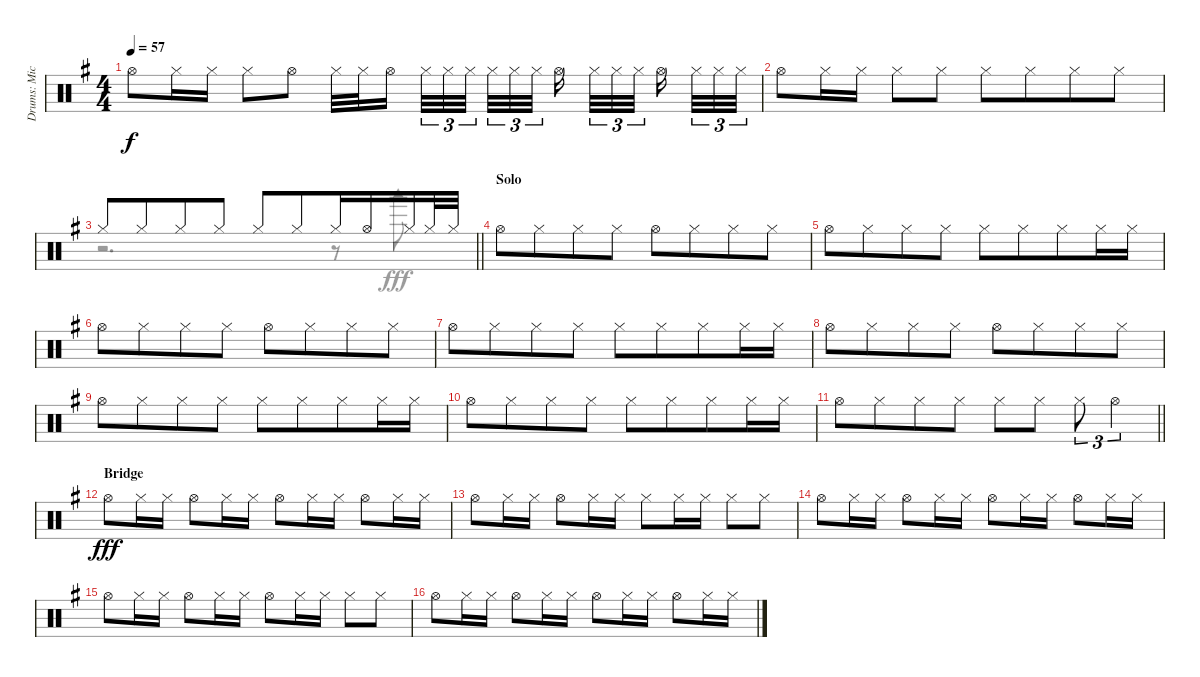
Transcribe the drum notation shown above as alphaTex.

\track ("Drums: Mick" "Drums: Mic") {instrument percussion}
\staff {score}
\articulation defaults
\voice
\ts (4 4)
\tempo 57
\clef neutral
\ks g "Hi-Hat (open)".8{dy f} "Hi-Hat (closed)".16 "Hi-Hat (closed)".16 "Hi-Hat (closed)".8 "Hi-Hat (open)".8 "Hi-Hat (closed)".32 "Hi-Hat (closed)".32 "Hi-Hat (open)".16{beam splitsecondary} "Hi-Hat (closed)".32{tu (3 2)} "Hi-Hat (closed)".32{tu (3 2)} "Hi-Hat (closed)".32{tu (3 2) beam splitsecondary} "Hi-Hat (closed)".32{tu (3 2)} "Hi-Hat (closed)".32{tu (3 2)} "Hi-Hat (closed)".32{tu (3 2)} "Hi-Hat (open)".16{beam splitsecondary} "Hi-Hat (closed)".32{tu (3 2)} "Hi-Hat (closed)".32{tu (3 2)} "Hi-Hat (closed)".32{tu (3 2) beam splitsecondary} "Hi-Hat (open)".16{beam splitsecondary} "Hi-Hat (closed)".32{tu (3 2)} "Hi-Hat (closed)".32{tu (3 2)} "Hi-Hat (closed)".32{tu (3 2)}
|
"Hi-Hat (open)".8 "Hi-Hat (closed)".16 "Hi-Hat (closed)".16 "Hi-Hat (closed)".8 "Hi-Hat (closed)".8 "Hi-Hat (closed)".8 "Hi-Hat (closed)".8{beam merge} "Hi-Hat (closed)".8 "Hi-Hat (closed)".8 |
\barLineRight lightlight "Hi-Hat (closed)".8 "Hi-Hat (closed)".8{beam merge} "Hi-Hat (closed)".8 "Hi-Hat (closed)".8 "Hi-Hat (closed)".8 "Hi-Hat (closed)".8{beam merge} "Hi-Hat (closed)".16 "Hi-Hat (open)".16 "Hi-Hat (closed)".16 "Hi-Hat (closed)".32 "Hi-Hat (closed)".32
|
\section ("" "Solo")
"Hi-Hat (open)".8 "Hi-Hat (closed)".8{beam merge} "Hi-Hat (closed)".8 "Hi-Hat (closed)".8 "Hi-Hat (open)".8 "Hi-Hat (closed)".8{beam merge} "Hi-Hat (closed)".8 "Hi-Hat (closed)".8 |
"Hi-Hat (open)".8 "Hi-Hat (closed)".8{beam merge} "Hi-Hat (closed)".8 "Hi-Hat (closed)".8 "Hi-Hat (closed)".8 "Hi-Hat (closed)".8{beam merge} "Hi-Hat (closed)".8 "Hi-Hat (closed)".16 "Hi-Hat (closed)".16 |
"Hi-Hat (open)".8 "Hi-Hat (closed)".8{beam merge} "Hi-Hat (closed)".8 "Hi-Hat (closed)".8 "Hi-Hat (open)".8 "Hi-Hat (closed)".8{beam merge} "Hi-Hat (closed)".8 "Hi-Hat (closed)".8 |
"Hi-Hat (open)".8 "Hi-Hat (closed)".8{beam merge} "Hi-Hat (closed)".8 "Hi-Hat (closed)".8 "Hi-Hat (closed)".8 "Hi-Hat (closed)".8{beam merge} "Hi-Hat (closed)".8 "Hi-Hat (closed)".16 "Hi-Hat (closed)".16 |
"Hi-Hat (open)".8 "Hi-Hat (closed)".8{beam merge} "Hi-Hat (closed)".8 "Hi-Hat (closed)".8 "Hi-Hat (open)".8 "Hi-Hat (closed)".8{beam merge} "Hi-Hat (closed)".8 "Hi-Hat (closed)".8 |
"Hi-Hat (open)".8 "Hi-Hat (closed)".8{beam merge} "Hi-Hat (closed)".8 "Hi-Hat (closed)".8 "Hi-Hat (closed)".8 "Hi-Hat (closed)".8{beam merge} "Hi-Hat (closed)".8 "Hi-Hat (closed)".16 "Hi-Hat (closed)".16 |
"Hi-Hat (open)".8 "Hi-Hat (closed)".8{beam merge} "Hi-Hat (closed)".8 "Hi-Hat (closed)".8 "Hi-Hat (closed)".8 "Hi-Hat (closed)".8{beam merge} "Hi-Hat (closed)".8 "Hi-Hat (closed)".16 "Hi-Hat (closed)".16 |
\barLineRight lightlight "Hi-Hat (open)".8 "Hi-Hat (closed)".8{beam merge} "Hi-Hat (closed)".8 "Hi-Hat (closed)".8 "Hi-Hat (closed)".8 "Hi-Hat (closed)".8 "Hi-Hat (closed)".8{tu (3 2)} "Hi-Hat (open)".4{tu (3 2)}
|
\section ("" "Bridge")
"Hi-Hat (open)".8{dy fff} "Hi-Hat (closed)".16 "Hi-Hat (closed)".16 "Hi-Hat (open)".8 "Hi-Hat (closed)".16 "Hi-Hat (closed)".16 "Hi-Hat (open)".8 "Hi-Hat (closed)".16 "Hi-Hat (closed)".16 "Hi-Hat (open)".8 "Hi-Hat (closed)".16 "Hi-Hat (closed)".16 |
"Hi-Hat (open)".8 "Hi-Hat (closed)".16 "Hi-Hat (closed)".16 "Hi-Hat (open)".8 "Hi-Hat (closed)".16 "Hi-Hat (closed)".16 "Hi-Hat (closed)".8 "Hi-Hat (closed)".16 "Hi-Hat (closed)".16 "Hi-Hat (closed)".8 "Hi-Hat (closed)".8 |
"Hi-Hat (open)".8 "Hi-Hat (closed)".16 "Hi-Hat (closed)".16 "Hi-Hat (open)".8 "Hi-Hat (closed)".16 "Hi-Hat (closed)".16 "Hi-Hat (open)".8 "Hi-Hat (closed)".16 "Hi-Hat (closed)".16 "Hi-Hat (open)".8 "Hi-Hat (closed)".16 "Hi-Hat (closed)".16 |
"Hi-Hat (open)".8 "Hi-Hat (closed)".16 "Hi-Hat (closed)".16 "Hi-Hat (open)".8 "Hi-Hat (closed)".16 "Hi-Hat (closed)".16 "Hi-Hat (open)".8 "Hi-Hat (closed)".16 "Hi-Hat (closed)".16 "Hi-Hat (closed)".8 "Hi-Hat (closed)".8 |
"Hi-Hat (open)".8 "Hi-Hat (closed)".16 "Hi-Hat (closed)".16 "Hi-Hat (open)".8 "Hi-Hat (closed)".16 "Hi-Hat (closed)".16 "Hi-Hat (open)".8 "Hi-Hat (closed)".16 "Hi-Hat (closed)".16 "Hi-Hat (open)".8 "Hi-Hat (closed)".16 "Hi-Hat (closed)".16
\voice
\clef neutral
\ottava regular
\simile none
\ks g
|
|
\barLineRight lightlight
r.2{d} r.8 "Woodblock low (hit)".8 |
|
|
|
|
|
|
|
\barLineRight lightlight
|
|
|
|
|
